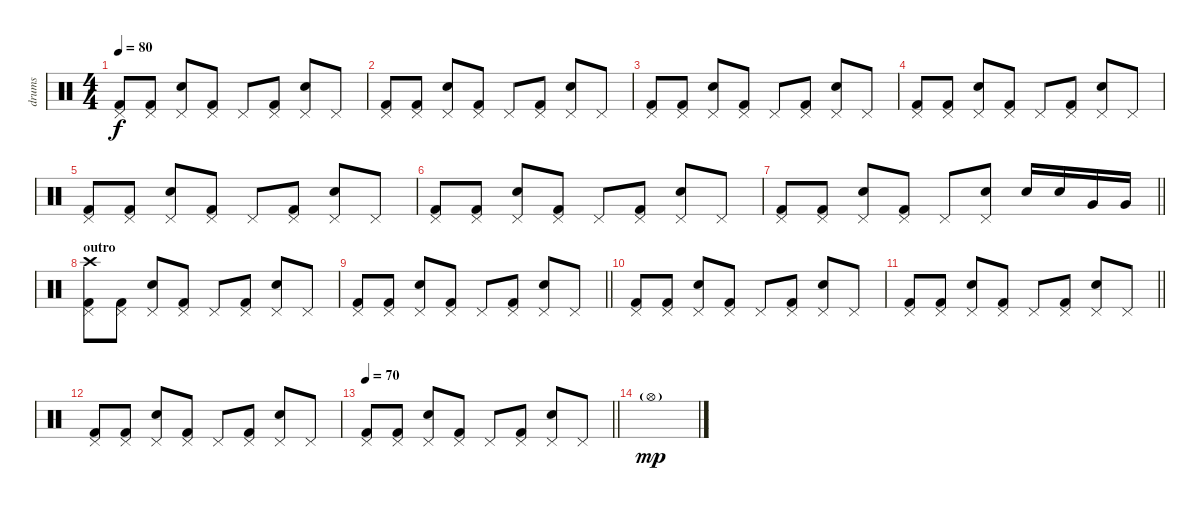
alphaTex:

\track ("drums" "drums") {instrument percussion}
\staff {score}
\articulation defaults
\ts (4 4)
\tempo 80
\clef neutral
\ks c
("Kick (hit) 2" "Pedal Hi-Hat (hit)").8{dy f} ("Kick (hit) 2" "Pedal Hi-Hat (hit)").8 ("Electric Snare (hit)" "Pedal Hi-Hat (hit)").8 ("Kick (hit) 2" "Pedal Hi-Hat (hit)").8 "Pedal Hi-Hat (hit)".8 ("Kick (hit) 2" "Pedal Hi-Hat (hit)").8 ("Electric Snare (hit)" "Pedal Hi-Hat (hit)").8 "Pedal Hi-Hat (hit)".8 |
("Kick (hit) 2" "Pedal Hi-Hat (hit)").8 ("Kick (hit) 2" "Pedal Hi-Hat (hit)").8 ("Electric Snare (hit)" "Pedal Hi-Hat (hit)").8 ("Kick (hit) 2" "Pedal Hi-Hat (hit)").8 "Pedal Hi-Hat (hit)".8 ("Kick (hit) 2" "Pedal Hi-Hat (hit)").8 ("Electric Snare (hit)" "Pedal Hi-Hat (hit)").8 "Pedal Hi-Hat (hit)".8 |
("Kick (hit) 2" "Pedal Hi-Hat (hit)").8 ("Kick (hit) 2" "Pedal Hi-Hat (hit)").8 ("Electric Snare (hit)" "Pedal Hi-Hat (hit)").8 ("Kick (hit) 2" "Pedal Hi-Hat (hit)").8 "Pedal Hi-Hat (hit)".8 ("Kick (hit) 2" "Pedal Hi-Hat (hit)").8 ("Electric Snare (hit)" "Pedal Hi-Hat (hit)").8 "Pedal Hi-Hat (hit)".8 |
("Kick (hit) 2" "Pedal Hi-Hat (hit)").8 ("Kick (hit) 2" "Pedal Hi-Hat (hit)").8 ("Electric Snare (hit)" "Pedal Hi-Hat (hit)").8 ("Kick (hit) 2" "Pedal Hi-Hat (hit)").8 "Pedal Hi-Hat (hit)".8 ("Kick (hit) 2" "Pedal Hi-Hat (hit)").8 ("Electric Snare (hit)" "Pedal Hi-Hat (hit)").8 "Pedal Hi-Hat (hit)".8 |
("Kick (hit) 2" "Pedal Hi-Hat (hit)").8 ("Kick (hit) 2" "Pedal Hi-Hat (hit)").8 ("Electric Snare (hit)" "Pedal Hi-Hat (hit)").8 ("Kick (hit) 2" "Pedal Hi-Hat (hit)").8 "Pedal Hi-Hat (hit)".8 ("Kick (hit) 2" "Pedal Hi-Hat (hit)").8 ("Electric Snare (hit)" "Pedal Hi-Hat (hit)").8 "Pedal Hi-Hat (hit)".8 |
("Kick (hit) 2" "Pedal Hi-Hat (hit)").8 ("Kick (hit) 2" "Pedal Hi-Hat (hit)").8 ("Electric Snare (hit)" "Pedal Hi-Hat (hit)").8 ("Kick (hit) 2" "Pedal Hi-Hat (hit)").8 "Pedal Hi-Hat (hit)".8 ("Kick (hit) 2" "Pedal Hi-Hat (hit)").8 ("Electric Snare (hit)" "Pedal Hi-Hat (hit)").8 "Pedal Hi-Hat (hit)".8 |
\barLineRight lightlight
("Kick (hit) 2" "Pedal Hi-Hat (hit)").8 ("Kick (hit) 2" "Pedal Hi-Hat (hit)").8 ("Electric Snare (hit)" "Pedal Hi-Hat (hit)").8 ("Kick (hit) 2" "Pedal Hi-Hat (hit)").8 "Pedal Hi-Hat (hit)".8 ("Electric Snare (hit)" "Pedal Hi-Hat (hit)").8 "Electric Snare (hit)".16 "Electric Snare (hit)".16 "Very Low Tom (hit)".16 "Very Low Tom (hit)".16 |
\section ("" "outro")
("Kick (hit) 2" "Pedal Hi-Hat (hit)" "Crash high (hit)").8 ("Kick (hit) 2" "Pedal Hi-Hat (hit)").8 ("Electric Snare (hit)" "Pedal Hi-Hat (hit)").8 ("Kick (hit) 2" "Pedal Hi-Hat (hit)").8 "Pedal Hi-Hat (hit)".8 ("Kick (hit) 2" "Pedal Hi-Hat (hit)").8 ("Electric Snare (hit)" "Pedal Hi-Hat (hit)").8 "Pedal Hi-Hat (hit)".8 |
\barLineRight lightlight
("Kick (hit) 2" "Pedal Hi-Hat (hit)").8 ("Kick (hit) 2" "Pedal Hi-Hat (hit)").8 ("Electric Snare (hit)" "Pedal Hi-Hat (hit)").8 ("Kick (hit) 2" "Pedal Hi-Hat (hit)").8 "Pedal Hi-Hat (hit)".8 ("Kick (hit) 2" "Pedal Hi-Hat (hit)").8 ("Electric Snare (hit)" "Pedal Hi-Hat (hit)").8 "Pedal Hi-Hat (hit)".8 |
("Kick (hit) 2" "Pedal Hi-Hat (hit)").8 ("Kick (hit) 2" "Pedal Hi-Hat (hit)").8 ("Electric Snare (hit)" "Pedal Hi-Hat (hit)").8 ("Kick (hit) 2" "Pedal Hi-Hat (hit)").8 "Pedal Hi-Hat (hit)".8 ("Kick (hit) 2" "Pedal Hi-Hat (hit)").8 ("Electric Snare (hit)" "Pedal Hi-Hat (hit)").8 "Pedal Hi-Hat (hit)".8 |
\barLineRight lightlight
("Kick (hit) 2" "Pedal Hi-Hat (hit)").8 ("Kick (hit) 2" "Pedal Hi-Hat (hit)").8 ("Electric Snare (hit)" "Pedal Hi-Hat (hit)").8 ("Kick (hit) 2" "Pedal Hi-Hat (hit)").8 "Pedal Hi-Hat (hit)".8 ("Kick (hit) 2" "Pedal Hi-Hat (hit)").8 ("Electric Snare (hit)" "Pedal Hi-Hat (hit)").8 "Pedal Hi-Hat (hit)".8 |
("Kick (hit) 2" "Pedal Hi-Hat (hit)").8 ("Kick (hit) 2" "Pedal Hi-Hat (hit)").8 ("Electric Snare (hit)" "Pedal Hi-Hat (hit)").8 ("Kick (hit) 2" "Pedal Hi-Hat (hit)").8 "Pedal Hi-Hat (hit)".8 ("Kick (hit) 2" "Pedal Hi-Hat (hit)").8 ("Electric Snare (hit)" "Pedal Hi-Hat (hit)").8 "Pedal Hi-Hat (hit)".8 |
\tempo 70
\barLineRight lightlight
("Kick (hit) 2" "Pedal Hi-Hat (hit)").8 ("Kick (hit) 2" "Pedal Hi-Hat (hit)").8 ("Electric Snare (hit)" "Pedal Hi-Hat (hit)").8 ("Kick (hit) 2" "Pedal Hi-Hat (hit)").8 "Pedal Hi-Hat (hit)".8 ("Kick (hit) 2" "Pedal Hi-Hat (hit)").8 ("Electric Snare (hit)" "Pedal Hi-Hat (hit)").8 "Pedal Hi-Hat (hit)".8 |
"Hi-Hat (open)"{g}.1{dy mp}
